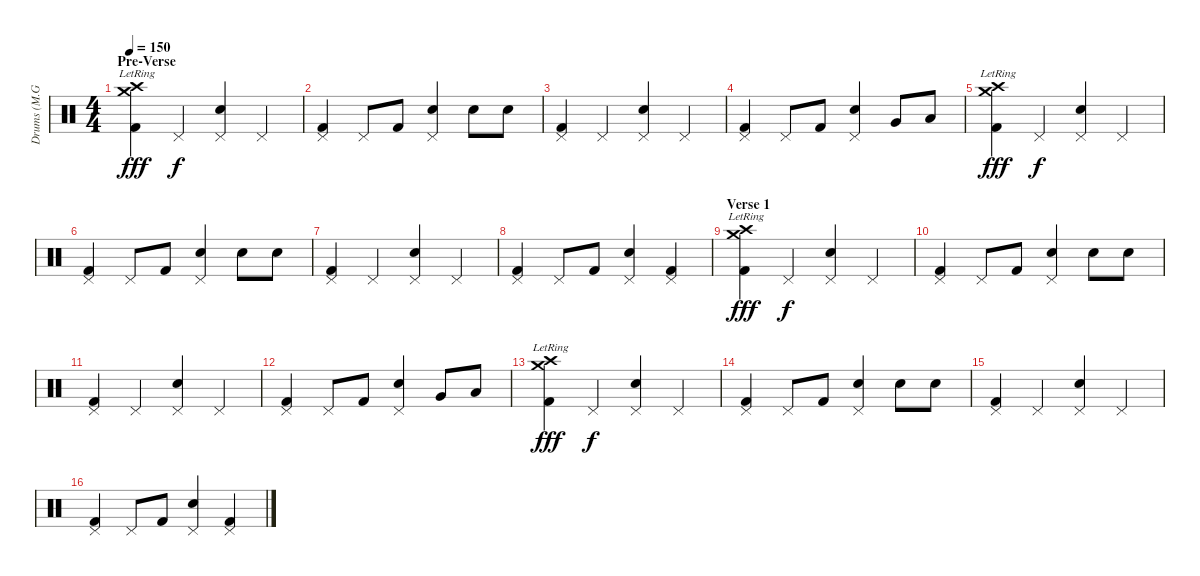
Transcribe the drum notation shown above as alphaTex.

\track ("Drums (M.Großkopf)" "Drums (M.G") {instrument percussion}
\staff {score}
\articulation defaults
\ts (4 4)
\section ("" "Pre-Verse")
\tempo 150
\clef neutral
\ks c
("Crash high (hit)"{lr} "Crash medium (hit)"{lr} "Kick (hit) 2").4{dy fff} "Pedal Hi-Hat (hit)".4{dy f} ("Pedal Hi-Hat (hit)" "Electric Snare (hit)").4 "Pedal Hi-Hat (hit)".4 |
("Pedal Hi-Hat (hit)" "Kick (hit) 2").4 "Pedal Hi-Hat (hit)".8 "Kick (hit) 2".8 ("Pedal Hi-Hat (hit)" "Electric Snare (hit)").4 "Electric Snare (hit)".8 "Electric Snare (hit)".8 |
("Pedal Hi-Hat (hit)" "Kick (hit) 2").4 "Pedal Hi-Hat (hit)".4 ("Pedal Hi-Hat (hit)" "Electric Snare (hit)").4 "Pedal Hi-Hat (hit)".4 |
("Pedal Hi-Hat (hit)" "Kick (hit) 2").4 "Pedal Hi-Hat (hit)".8 "Kick (hit) 2".8 ("Pedal Hi-Hat (hit)" "Electric Snare (hit)").4 "Very Low Tom (hit)".8 "Low Floor Tom (hit)".8 |
("Crash high (hit)"{lr} "Crash medium (hit)"{lr} "Kick (hit) 2").4{dy fff} "Pedal Hi-Hat (hit)".4{dy f} ("Pedal Hi-Hat (hit)" "Electric Snare (hit)").4 "Pedal Hi-Hat (hit)".4 |
("Pedal Hi-Hat (hit)" "Kick (hit) 2").4 "Pedal Hi-Hat (hit)".8 "Kick (hit) 2".8 ("Pedal Hi-Hat (hit)" "Electric Snare (hit)").4 "Electric Snare (hit)".8 "Electric Snare (hit)".8 |
("Pedal Hi-Hat (hit)" "Kick (hit) 2").4 "Pedal Hi-Hat (hit)".4 ("Pedal Hi-Hat (hit)" "Electric Snare (hit)").4 "Pedal Hi-Hat (hit)".4 |
("Pedal Hi-Hat (hit)" "Kick (hit) 2").4 "Pedal Hi-Hat (hit)".8 "Kick (hit) 2".8 ("Pedal Hi-Hat (hit)" "Electric Snare (hit)").4 ("Pedal Hi-Hat (hit)" "Kick (hit) 2").4 |
\section ("" "Verse 1")
("Crash high (hit)"{lr} "Crash medium (hit)"{lr} "Kick (hit) 2").4{dy fff} "Pedal Hi-Hat (hit)".4{dy f} ("Pedal Hi-Hat (hit)" "Electric Snare (hit)").4 "Pedal Hi-Hat (hit)".4 |
("Pedal Hi-Hat (hit)" "Kick (hit) 2").4 "Pedal Hi-Hat (hit)".8 "Kick (hit) 2".8 ("Pedal Hi-Hat (hit)" "Electric Snare (hit)").4 "Electric Snare (hit)".8 "Electric Snare (hit)".8 |
("Pedal Hi-Hat (hit)" "Kick (hit) 2").4 "Pedal Hi-Hat (hit)".4 ("Pedal Hi-Hat (hit)" "Electric Snare (hit)").4 "Pedal Hi-Hat (hit)".4 |
("Pedal Hi-Hat (hit)" "Kick (hit) 2").4 "Pedal Hi-Hat (hit)".8 "Kick (hit) 2".8 ("Pedal Hi-Hat (hit)" "Electric Snare (hit)").4 "Very Low Tom (hit)".8 "Low Floor Tom (hit)".8 |
("Crash high (hit)"{lr} "Crash medium (hit)"{lr} "Kick (hit) 2").4{dy fff} "Pedal Hi-Hat (hit)".4{dy f} ("Pedal Hi-Hat (hit)" "Electric Snare (hit)").4 "Pedal Hi-Hat (hit)".4 |
("Pedal Hi-Hat (hit)" "Kick (hit) 2").4 "Pedal Hi-Hat (hit)".8 "Kick (hit) 2".8 ("Pedal Hi-Hat (hit)" "Electric Snare (hit)").4 "Electric Snare (hit)".8 "Electric Snare (hit)".8 |
("Pedal Hi-Hat (hit)" "Kick (hit) 2").4 "Pedal Hi-Hat (hit)".4 ("Pedal Hi-Hat (hit)" "Electric Snare (hit)").4 "Pedal Hi-Hat (hit)".4 |
("Pedal Hi-Hat (hit)" "Kick (hit) 2").4 "Pedal Hi-Hat (hit)".8 "Kick (hit) 2".8 ("Pedal Hi-Hat (hit)" "Electric Snare (hit)").4 ("Pedal Hi-Hat (hit)" "Kick (hit) 2").4
